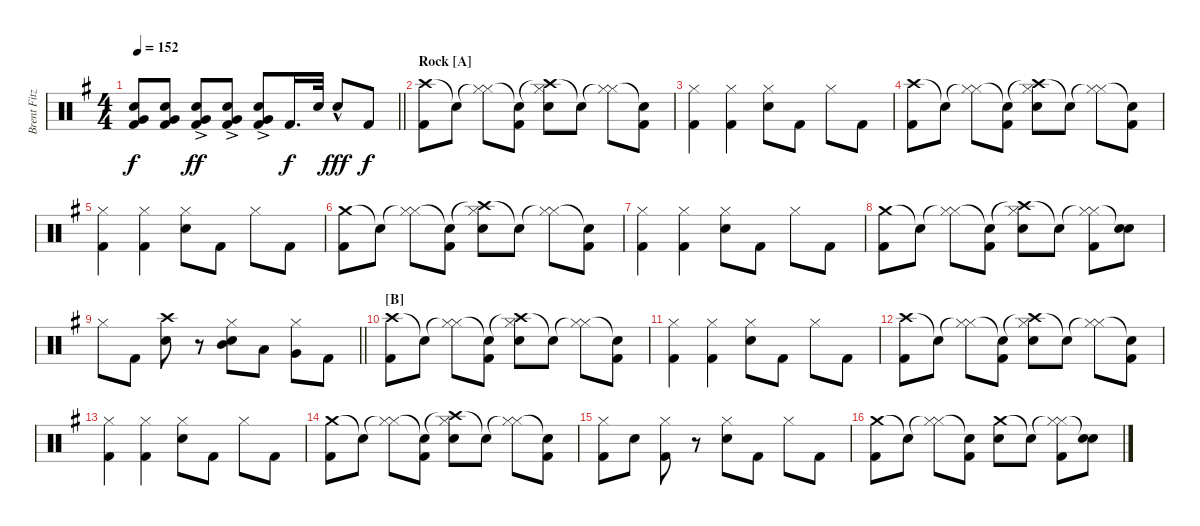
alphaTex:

\track ("Brent Fitz" "Brent Fitz") {instrument percussion}
\staff {score}
\articulation defaults
\ts (4 4)
\tempo 152
\clef neutral
\barLineRight lightlight
\ks eminor
("Snare (hit) 2" "Very Low Tom (hit)" "Kick (hit) 2").8{dy f} ("Snare (hit) 2" "Very Low Tom (hit)" "Kick (hit) 2").8 ("Snare (hit) 2" "Very Low Tom (hit)"{ac} "Kick (hit) 2"{ac}).8{dy ff} ("Snare (hit) 2" "Very Low Tom (hit)"{ac} "Kick (hit) 2"{ac}).8 ("Snare (hit) 2" "Very Low Tom (hit)"{ac} "Kick (hit) 2"{ac}).8 "Kick (hit) 2".16{d dy f} "Snare (hit) 2".32 "Snare (hit) 2"{hac}.8{dy fff} "Kick (hit) 2".8{dy f} |
\section ("" "Rock [A]")
("Crash high (hit)" "Kick (hit) 2").8 "Snare (hit)"{t}.8 ("Hi-Hat (closed)"{t} "Hi-Hat (closed)").8 ("Snare (hit)"{t} "Kick (hit) 2").8 ("Crash high (hit)"{t} "Hi-Hat (closed)" "Snare (hit) 2").8 "Snare (hit)"{t}.8 ("Hi-Hat (closed)"{t} "Hi-Hat (closed)").8 ("Snare (hit)"{t} "Kick (hit) 2").8 |
("Hi-Hat (closed)" "Kick (hit) 2").4 ("Hi-Hat (closed)" "Kick (hit) 2").4 ("Hi-Hat (closed)" "Snare (hit) 2").8 "Kick (hit) 2".8 "Hi-Hat (closed)".8 "Kick (hit) 2".8 |
("Crash high (hit)" "Kick (hit) 2").8 "Snare (hit)"{t}.8 ("Hi-Hat (closed)"{t} "Hi-Hat (closed)").8 ("Snare (hit)"{t} "Kick (hit) 2").8 ("Crash high (hit)"{t} "Hi-Hat (closed)" "Snare (hit) 2").8 "Snare (hit)"{t}.8 ("Hi-Hat (closed)"{t} "Hi-Hat (closed)").8 ("Snare (hit)"{t} "Kick (hit) 2").8 |
("Hi-Hat (closed)" "Kick (hit) 2").4 ("Hi-Hat (closed)" "Kick (hit) 2").4 ("Hi-Hat (closed)" "Snare (hit) 2").8 "Kick (hit) 2".8 "Hi-Hat (closed)".8 "Kick (hit) 2".8 |
("Crash medium (hit)" "Kick (hit) 2").8 "Snare (hit)"{t}.8 ("Hi-Hat (closed)"{t} "Hi-Hat (closed)").8 ("Snare (hit)"{t} "Kick (hit) 2").8 ("Crash high (hit)"{t} "Hi-Hat (closed)" "Snare (hit) 2").8 "Snare (hit)"{t}.8 ("Hi-Hat (closed)"{t} "Hi-Hat (closed)").8 ("Snare (hit)"{t} "Kick (hit) 2").8 |
("Hi-Hat (closed)" "Kick (hit) 2").4 ("Hi-Hat (closed)" "Kick (hit) 2").4 ("Hi-Hat (closed)" "Snare (hit) 2").8 "Kick (hit) 2".8 "Hi-Hat (closed)".8 "Kick (hit) 2".8 |
("Crash medium (hit)" "Kick (hit) 2").8 "Snare (hit)"{t}.8 ("Hi-Hat (closed)"{t} "Hi-Hat (closed)").8 ("Snare (hit)"{t} "Kick (hit) 2").8 ("Crash high (hit)"{t} "Hi-Hat (closed)" "Snare (hit) 2").8 "Snare (hit)"{t}.8 ("Hi-Hat (closed)"{t} "Hi-Hat (closed)" "Kick (hit) 2").8 ("Snare (hit)"{t} "Snare (hit) 2").8 |
\barLineRight lightlight "Hi-Hat (closed)".8 "Kick (hit) 2".8
("Crash high (hit)" "Snare (hit) 2").8 r.8 ("Hi-Hat (closed)" "Mid Tom (hit)" "Snare (hit) 2").8 "Low Tom (hit)".8 ("Hi-Hat (closed)" "Very Low Tom (hit)").8 "Kick (hit) 2".8 |
\section ("" "[B]")
("Crash high (hit)" "Kick (hit) 2").8 "Snare (hit)"{t}.8 ("Hi-Hat (closed)"{t} "Hi-Hat (closed)").8 ("Snare (hit)"{t} "Kick (hit) 2").8 ("Crash high (hit)"{t} "Hi-Hat (closed)" "Snare (hit) 2").8 "Snare (hit)"{t}.8 ("Hi-Hat (closed)"{t} "Hi-Hat (closed)").8 ("Snare (hit)"{t} "Kick (hit) 2").8 |
("Hi-Hat (closed)" "Kick (hit) 2").4 ("Hi-Hat (closed)" "Kick (hit) 2").4 ("Hi-Hat (closed)" "Snare (hit) 2").8 "Kick (hit) 2".8 "Hi-Hat (closed)".8 "Kick (hit) 2".8 |
("Crash high (hit)" "Kick (hit) 2").8 "Snare (hit)"{t}.8 ("Hi-Hat (closed)"{t} "Hi-Hat (closed)").8 ("Snare (hit)"{t} "Kick (hit) 2").8 ("Crash high (hit)"{t} "Hi-Hat (closed)" "Snare (hit) 2").8 "Snare (hit)"{t}.8 ("Hi-Hat (closed)"{t} "Hi-Hat (closed)").8 ("Snare (hit)"{t} "Kick (hit) 2").8 |
("Hi-Hat (closed)" "Kick (hit) 2").4 ("Hi-Hat (closed)" "Kick (hit) 2").4 ("Hi-Hat (closed)" "Snare (hit) 2").8 "Kick (hit) 2".8 "Hi-Hat (closed)".8 "Kick (hit) 2".8 |
("Crash medium (hit)" "Kick (hit) 2").8 "Snare (hit)"{t}.8 ("Hi-Hat (closed)"{t} "Hi-Hat (closed)").8 ("Snare (hit)"{t} "Kick (hit) 2").8 ("Crash high (hit)"{t} "Hi-Hat (closed)" "Snare (hit) 2").8 "Snare (hit)"{t}.8 ("Hi-Hat (closed)"{t} "Hi-Hat (closed)").8 ("Snare (hit)"{t} "Kick (hit) 2").8 |
("Hi-Hat (closed)" "Kick (hit) 2").8 "Snare (hit) 2".8 ("Hi-Hat (closed)" "Kick (hit) 2").8 r.8 ("Hi-Hat (closed)" "Snare (hit) 2").8 "Kick (hit) 2".8 "Hi-Hat (closed)".8 "Kick (hit) 2".8 |
("Crash medium (hit)" "Kick (hit) 2").8 "Snare (hit)"{t}.8 ("Hi-Hat (closed)"{t} "Hi-Hat (closed)").8 ("Snare (hit)"{t} "Kick (hit) 2").8 ("Crash medium (hit)" "Snare (hit) 2").8 "Snare (hit)"{t}.8 ("Hi-Hat (closed)"{t} "Hi-Hat (closed)" "Kick (hit) 2").8 ("Snare (hit)"{t} "Snare (hit) 2").8
